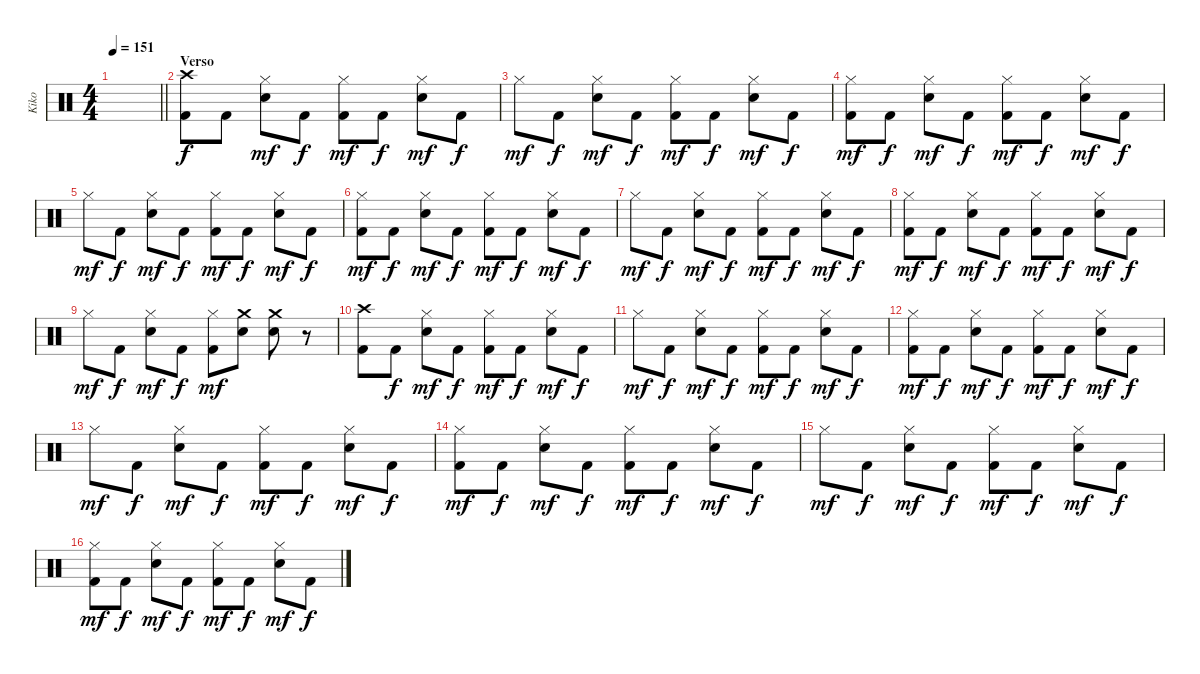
\track ("Kiko" "Kiko") {instrument percussion}
\staff {score}
\articulation defaults
\ts (4 4)
\tempo 151
\clef neutral
\barLineRight lightlight
\ks c
|
\section ("" "Verso")
("Crash high (hit)" "Kick (hit) 2").8 "Kick (hit) 2".8{dy f} ("Hi-Hat (closed)" "Electric Snare (hit)").8{dy mf} "Kick (hit) 2".8{dy f} ("Hi-Hat (closed)" "Kick (hit) 2").8{dy mf} "Kick (hit) 2".8{dy f} ("Hi-Hat (closed)" "Electric Snare (hit)").8{dy mf} "Kick (hit) 2".8{dy f} |
"Hi-Hat (closed)".8{dy mf} "Kick (hit) 2".8{dy f} ("Hi-Hat (closed)" "Electric Snare (hit)").8{dy mf} "Kick (hit) 2".8{dy f} ("Hi-Hat (closed)" "Kick (hit) 2").8{dy mf} "Kick (hit) 2".8{dy f} ("Hi-Hat (closed)" "Electric Snare (hit)").8{dy mf} "Kick (hit) 2".8{dy f} |
("Hi-Hat (closed)" "Kick (hit) 2").8{dy mf} "Kick (hit) 2".8{dy f} ("Hi-Hat (closed)" "Electric Snare (hit)").8{dy mf} "Kick (hit) 2".8{dy f} ("Hi-Hat (closed)" "Kick (hit) 2").8{dy mf} "Kick (hit) 2".8{dy f} ("Hi-Hat (closed)" "Electric Snare (hit)").8{dy mf} "Kick (hit) 2".8{dy f} |
"Hi-Hat (closed)".8{dy mf} "Kick (hit) 2".8{dy f} ("Hi-Hat (closed)" "Electric Snare (hit)").8{dy mf} "Kick (hit) 2".8{dy f} ("Hi-Hat (closed)" "Kick (hit) 2").8{dy mf} "Kick (hit) 2".8{dy f} ("Hi-Hat (closed)" "Electric Snare (hit)").8{dy mf} "Kick (hit) 2".8{dy f} |
("Hi-Hat (closed)" "Kick (hit) 2").8{dy mf} "Kick (hit) 2".8{dy f} ("Hi-Hat (closed)" "Electric Snare (hit)").8{dy mf} "Kick (hit) 2".8{dy f} ("Hi-Hat (closed)" "Kick (hit) 2").8{dy mf} "Kick (hit) 2".8{dy f} ("Hi-Hat (closed)" "Electric Snare (hit)").8{dy mf} "Kick (hit) 2".8{dy f} |
"Hi-Hat (closed)".8{dy mf} "Kick (hit) 2".8{dy f} ("Hi-Hat (closed)" "Electric Snare (hit)").8{dy mf} "Kick (hit) 2".8{dy f} ("Hi-Hat (closed)" "Kick (hit) 2").8{dy mf} "Kick (hit) 2".8{dy f} ("Hi-Hat (closed)" "Electric Snare (hit)").8{dy mf} "Kick (hit) 2".8{dy f} |
("Hi-Hat (closed)" "Kick (hit) 2").8{dy mf} "Kick (hit) 2".8{dy f} ("Hi-Hat (closed)" "Electric Snare (hit)").8{dy mf} "Kick (hit) 2".8{dy f} ("Hi-Hat (closed)" "Kick (hit) 2").8{dy mf} "Kick (hit) 2".8{dy f} ("Hi-Hat (closed)" "Electric Snare (hit)").8{dy mf} "Kick (hit) 2".8{dy f} |
"Hi-Hat (closed)".8{dy mf} "Kick (hit) 2".8{dy f} ("Hi-Hat (closed)" "Electric Snare (hit)").8{dy mf} "Kick (hit) 2".8{dy f} ("Hi-Hat (closed)" "Kick (hit) 2").8{dy mf} ("Crash medium (hit)" "Electric Snare (hit)").8 ("Crash medium (hit)" "Electric Snare (hit)").8 r.8 |
("Crash high (hit)" "Kick (hit) 2").8 "Kick (hit) 2".8{dy f} ("Hi-Hat (closed)" "Electric Snare (hit)").8{dy mf} "Kick (hit) 2".8{dy f} ("Hi-Hat (closed)" "Kick (hit) 2").8{dy mf} "Kick (hit) 2".8{dy f} ("Hi-Hat (closed)" "Electric Snare (hit)").8{dy mf} "Kick (hit) 2".8{dy f} |
"Hi-Hat (closed)".8{dy mf} "Kick (hit) 2".8{dy f} ("Hi-Hat (closed)" "Electric Snare (hit)").8{dy mf} "Kick (hit) 2".8{dy f} ("Hi-Hat (closed)" "Kick (hit) 2").8{dy mf} "Kick (hit) 2".8{dy f} ("Hi-Hat (closed)" "Electric Snare (hit)").8{dy mf} "Kick (hit) 2".8{dy f} |
("Hi-Hat (closed)" "Kick (hit) 2").8{dy mf} "Kick (hit) 2".8{dy f} ("Hi-Hat (closed)" "Electric Snare (hit)").8{dy mf} "Kick (hit) 2".8{dy f} ("Hi-Hat (closed)" "Kick (hit) 2").8{dy mf} "Kick (hit) 2".8{dy f} ("Hi-Hat (closed)" "Electric Snare (hit)").8{dy mf} "Kick (hit) 2".8{dy f} |
"Hi-Hat (closed)".8{dy mf} "Kick (hit) 2".8{dy f} ("Hi-Hat (closed)" "Electric Snare (hit)").8{dy mf} "Kick (hit) 2".8{dy f} ("Hi-Hat (closed)" "Kick (hit) 2").8{dy mf} "Kick (hit) 2".8{dy f} ("Hi-Hat (closed)" "Electric Snare (hit)").8{dy mf} "Kick (hit) 2".8{dy f} |
("Hi-Hat (closed)" "Kick (hit) 2").8{dy mf} "Kick (hit) 2".8{dy f} ("Hi-Hat (closed)" "Electric Snare (hit)").8{dy mf} "Kick (hit) 2".8{dy f} ("Hi-Hat (closed)" "Kick (hit) 2").8{dy mf} "Kick (hit) 2".8{dy f} ("Hi-Hat (closed)" "Electric Snare (hit)").8{dy mf} "Kick (hit) 2".8{dy f} |
"Hi-Hat (closed)".8{dy mf} "Kick (hit) 2".8{dy f} ("Hi-Hat (closed)" "Electric Snare (hit)").8{dy mf} "Kick (hit) 2".8{dy f} ("Hi-Hat (closed)" "Kick (hit) 2").8{dy mf} "Kick (hit) 2".8{dy f} ("Hi-Hat (closed)" "Electric Snare (hit)").8{dy mf} "Kick (hit) 2".8{dy f} |
("Hi-Hat (closed)" "Kick (hit) 2").8{dy mf} "Kick (hit) 2".8{dy f} ("Hi-Hat (closed)" "Electric Snare (hit)").8{dy mf} "Kick (hit) 2".8{dy f} ("Hi-Hat (closed)" "Kick (hit) 2").8{dy mf} "Kick (hit) 2".8{dy f} ("Hi-Hat (closed)" "Electric Snare (hit)").8{dy mf} "Kick (hit) 2".8{dy f}
